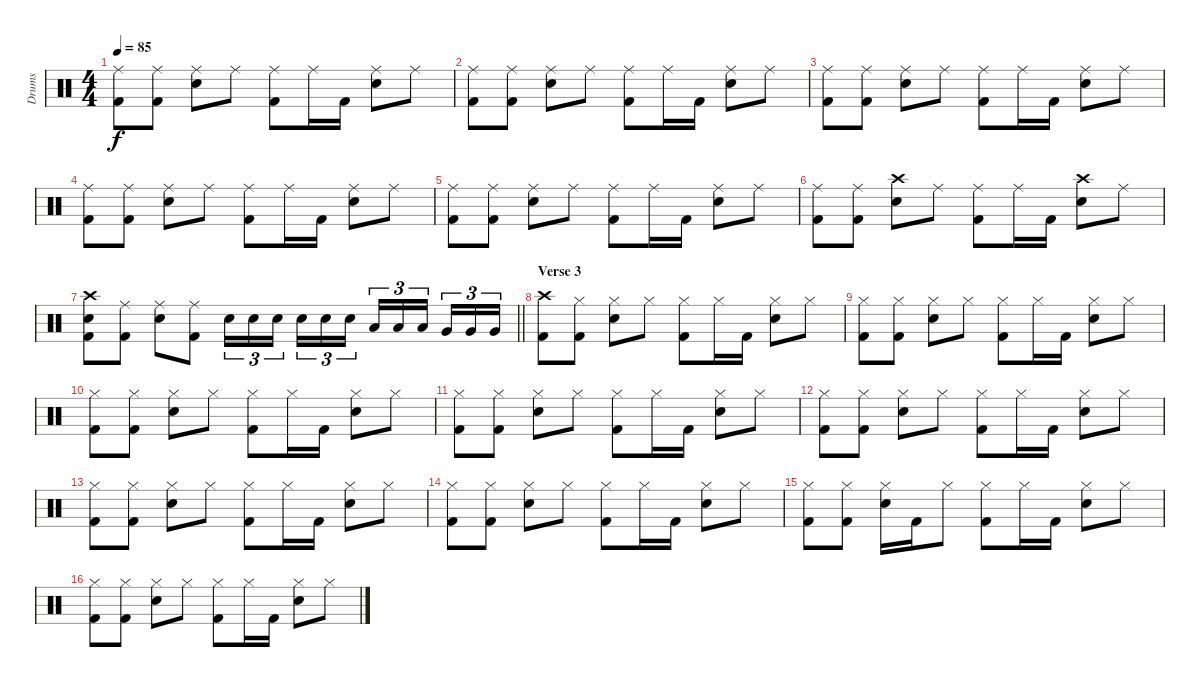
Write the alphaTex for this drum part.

\track ("Drums" "Drums") {instrument percussion}
\staff {score}
\articulation defaults
\ts (4 4)
\tempo 85
\clef neutral
\ks c
("Ride (middle)" "Kick (hit) 2").8{dy f} ("Ride (middle)" "Kick (hit) 2").8 ("Ride (middle)" "Snare (hit) 2").8 "Ride (middle)".8 ("Ride (middle)" "Kick (hit) 2").8 "Ride (middle)".16 "Kick (hit) 2".16 ("Ride (middle)" "Snare (hit) 2").8 "Ride (middle)".8 |
("Ride (middle)" "Kick (hit) 2").8 ("Ride (middle)" "Kick (hit) 2").8 ("Ride (middle)" "Snare (hit) 2").8 "Ride (middle)".8 ("Ride (middle)" "Kick (hit) 2").8 "Ride (middle)".16 "Kick (hit) 2".16 ("Ride (middle)" "Snare (hit) 2").8 "Ride (middle)".8 |
("Ride (middle)" "Kick (hit) 2").8 ("Ride (middle)" "Kick (hit) 2").8 ("Ride (middle)" "Snare (hit) 2").8 "Ride (middle)".8 ("Ride (middle)" "Kick (hit) 2").8 "Ride (middle)".16 "Kick (hit) 2".16 ("Ride (middle)" "Snare (hit) 2").8 "Ride (middle)".8 |
("Ride (middle)" "Kick (hit) 2").8 ("Ride (middle)" "Kick (hit) 2").8 ("Ride (middle)" "Snare (hit) 2").8 "Ride (middle)".8 ("Ride (middle)" "Kick (hit) 2").8 "Ride (middle)".16 "Kick (hit) 2".16 ("Ride (middle)" "Snare (hit) 2").8 "Ride (middle)".8 |
("Ride (middle)" "Kick (hit) 2").8 ("Ride (middle)" "Kick (hit) 2").8 ("Ride (middle)" "Snare (hit) 2").8 "Ride (middle)".8 ("Ride (middle)" "Kick (hit) 2").8 "Ride (middle)".16 "Kick (hit) 2".16 ("Ride (middle)" "Snare (hit) 2").8 "Ride (middle)".8 |
("Ride (middle)" "Kick (hit) 2").8 ("Ride (middle)" "Kick (hit) 2").8 ("Crash high (hit)" "Snare (hit) 2").8 "Ride (middle)".8 ("Ride (middle)" "Kick (hit) 2").8 "Ride (middle)".16 "Kick (hit) 2".16 ("Crash high (hit)" "Snare (hit) 2").8 "Ride (middle)".8 |
\barLineRight lightlight
("Crash high (hit)" "Snare (hit) 2" "Kick (hit) 2").8 ("Ride (middle)" "Kick (hit) 2").8 ("Ride (middle)" "Snare (hit) 2").8 ("Ride (middle)" "Kick (hit) 2").8 "Snare (hit) 2".16{tu (3 2)} "Snare (hit) 2".16{tu (3 2)} "Snare (hit) 2".16{tu (3 2) beam splitsecondary} "Snare (hit) 2".16{tu (3 2)} "Snare (hit) 2".16{tu (3 2)} "Snare (hit) 2".16{tu (3 2)} "Low Tom (hit)".16{tu (3 2)} "Low Tom (hit)".16{tu (3 2)} "Low Tom (hit)".16{tu (3 2) beam splitsecondary} "Very Low Tom (hit)".16{tu (3 2)} "Very Low Tom (hit)".16{tu (3 2)} "Very Low Tom (hit)".16{tu (3 2)} |
\section ("" "Verse 3")
("Crash high (hit)" "Kick (hit) 2").8 ("Hi-Hat (closed)" "Kick (hit) 2").8 ("Hi-Hat (closed)" "Snare (hit) 2").8 "Hi-Hat (closed)".8 ("Hi-Hat (closed)" "Kick (hit) 2").8 "Hi-Hat (closed)".16 "Kick (hit) 2".16 ("Hi-Hat (closed)" "Snare (hit) 2").8 "Hi-Hat (closed)".8 |
("Hi-Hat (closed)" "Kick (hit) 2").8 ("Hi-Hat (closed)" "Kick (hit) 2").8 ("Hi-Hat (closed)" "Snare (hit) 2").8 "Hi-Hat (closed)".8 ("Hi-Hat (closed)" "Kick (hit) 2").8 "Hi-Hat (closed)".16 "Kick (hit) 2".16 ("Hi-Hat (closed)" "Snare (hit) 2").8 "Hi-Hat (closed)".8 |
("Hi-Hat (closed)" "Kick (hit) 2").8 ("Hi-Hat (closed)" "Kick (hit) 2").8 ("Hi-Hat (closed)" "Snare (hit) 2").8 "Hi-Hat (closed)".8 ("Hi-Hat (closed)" "Kick (hit) 2").8 "Hi-Hat (closed)".16 "Kick (hit) 2".16 ("Hi-Hat (closed)" "Snare (hit) 2").8 "Hi-Hat (closed)".8 |
("Hi-Hat (closed)" "Kick (hit) 2").8 ("Hi-Hat (closed)" "Kick (hit) 2").8 ("Hi-Hat (closed)" "Snare (hit) 2").8 "Hi-Hat (closed)".8 ("Hi-Hat (closed)" "Kick (hit) 2").8 "Hi-Hat (closed)".16 "Kick (hit) 2".16 ("Hi-Hat (closed)" "Snare (hit) 2").8 "Hi-Hat (closed)".8 |
("Hi-Hat (closed)" "Kick (hit) 2").8 ("Hi-Hat (closed)" "Kick (hit) 2").8 ("Hi-Hat (closed)" "Snare (hit) 2").8 "Hi-Hat (closed)".8 ("Hi-Hat (closed)" "Kick (hit) 2").8 "Hi-Hat (closed)".16 "Kick (hit) 2".16 ("Hi-Hat (closed)" "Snare (hit) 2").8 "Hi-Hat (closed)".8 |
("Hi-Hat (closed)" "Kick (hit) 2").8 ("Hi-Hat (closed)" "Kick (hit) 2").8 ("Hi-Hat (closed)" "Snare (hit) 2").8 "Hi-Hat (closed)".8 ("Hi-Hat (closed)" "Kick (hit) 2").8 "Hi-Hat (closed)".16 "Kick (hit) 2".16 ("Hi-Hat (closed)" "Snare (hit) 2").8 "Hi-Hat (closed)".8 |
("Hi-Hat (closed)" "Kick (hit) 2").8 ("Hi-Hat (closed)" "Kick (hit) 2").8 ("Hi-Hat (closed)" "Snare (hit) 2").8 "Hi-Hat (closed)".8 ("Hi-Hat (closed)" "Kick (hit) 2").8 "Hi-Hat (closed)".16 "Kick (hit) 2".16 ("Hi-Hat (closed)" "Snare (hit) 2").8 "Hi-Hat (closed)".8 |
("Hi-Hat (closed)" "Kick (hit) 2").8 ("Hi-Hat (closed)" "Kick (hit) 2").8 ("Hi-Hat (closed)" "Snare (hit) 2").16 "Kick (hit) 2".16 "Hi-Hat (closed)".8 ("Hi-Hat (closed)" "Kick (hit) 2").8 "Hi-Hat (closed)".16 "Kick (hit) 2".16 ("Hi-Hat (closed)" "Snare (hit) 2").8 "Hi-Hat (closed)".8 |
("Hi-Hat (closed)" "Kick (hit) 2").8 ("Hi-Hat (closed)" "Kick (hit) 2").8 ("Hi-Hat (closed)" "Snare (hit) 2").8 "Hi-Hat (closed)".8 ("Hi-Hat (closed)" "Kick (hit) 2").8 "Hi-Hat (closed)".16 "Kick (hit) 2".16 ("Hi-Hat (closed)" "Snare (hit) 2").8 "Hi-Hat (closed)".8
